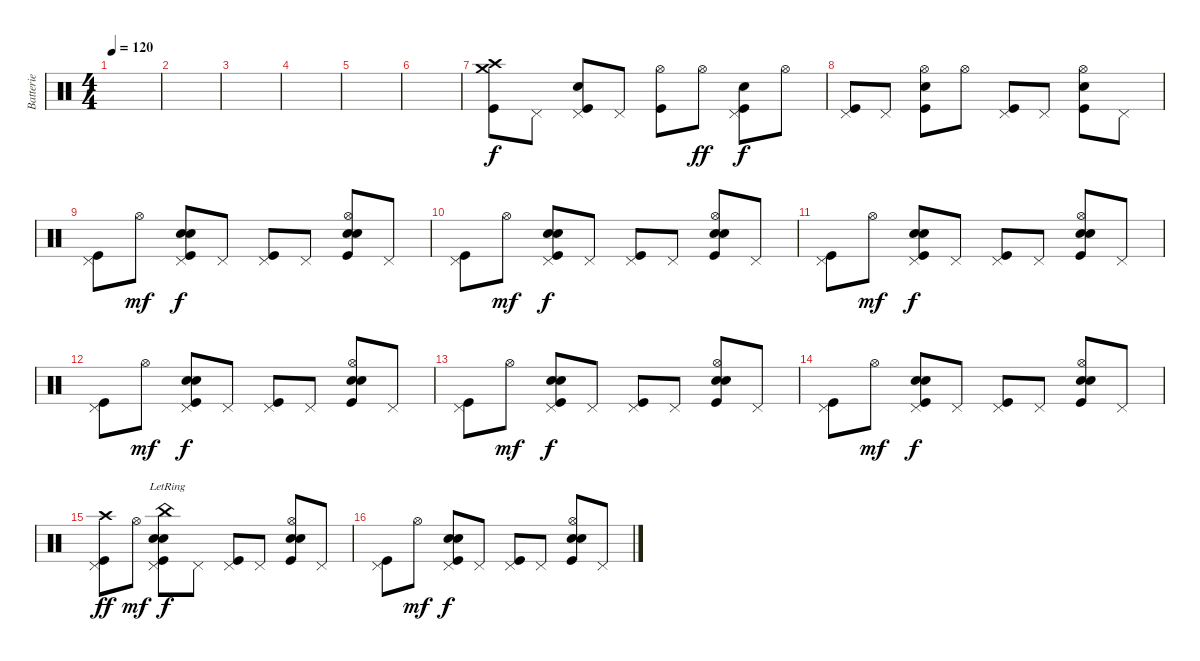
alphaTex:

\track ("Batterie" "Batterie") {instrument percussion}
\staff {score}
\articulation defaults
\ts (4 4)
\tempo 120
\clef neutral
\ks c
|
|
|
|
|
|
("Crash medium (hit)" "Kick (hit)" "Crash high (hit)").8 "Pedal Hi-Hat (hit)".8 ("Pedal Hi-Hat (hit)" "Kick (hit)" "Electric Snare (hit)").8 "Pedal Hi-Hat (hit)".8 ("Hi-Hat (open)" "Kick (hit)").8 "Hi-Hat (open)".8{dy ff} ("Pedal Hi-Hat (hit)" "Kick (hit)" "Electric Snare (hit)").8{dy f} "Hi-Hat (open)".8 |
("Pedal Hi-Hat (hit)" "Kick (hit)").8 "Pedal Hi-Hat (hit)".8 ("Hi-Hat (open)" "Kick (hit)" "Electric Snare (hit)").8 "Hi-Hat (open)".8 ("Pedal Hi-Hat (hit)" "Kick (hit)").8 "Pedal Hi-Hat (hit)".8 ("Hi-Hat (open)" "Kick (hit)" "Electric Snare (hit)").8 "Pedal Hi-Hat (hit)".8 |
("Pedal Hi-Hat (hit)" "Kick (hit)").8 "Hi-Hat (open)".8{dy mf} ("Pedal Hi-Hat (hit)" "Kick (hit)" "Electric Snare (hit)" "Snare (hit) 2").8{dy f} "Pedal Hi-Hat (hit)".8 ("Pedal Hi-Hat (hit)" "Kick (hit)").8 "Pedal Hi-Hat (hit)".8 ("Hi-Hat (open)" "Kick (hit)" "Electric Snare (hit)" "Snare (hit) 2").8 "Pedal Hi-Hat (hit)".8 |
("Pedal Hi-Hat (hit)" "Kick (hit)").8 "Hi-Hat (open)".8{dy mf} ("Pedal Hi-Hat (hit)" "Kick (hit)" "Electric Snare (hit)" "Snare (hit) 2").8{dy f} "Pedal Hi-Hat (hit)".8 ("Pedal Hi-Hat (hit)" "Kick (hit)").8 "Pedal Hi-Hat (hit)".8 ("Hi-Hat (open)" "Kick (hit)" "Electric Snare (hit)" "Snare (hit) 2").8 "Pedal Hi-Hat (hit)".8 |
("Pedal Hi-Hat (hit)" "Kick (hit)").8 "Hi-Hat (open)".8{dy mf} ("Pedal Hi-Hat (hit)" "Kick (hit)" "Electric Snare (hit)" "Snare (hit) 2").8{dy f} "Pedal Hi-Hat (hit)".8 ("Pedal Hi-Hat (hit)" "Kick (hit)").8 "Pedal Hi-Hat (hit)".8 ("Hi-Hat (open)" "Kick (hit)" "Electric Snare (hit)" "Snare (hit) 2").8 "Pedal Hi-Hat (hit)".8 |
("Pedal Hi-Hat (hit)" "Kick (hit)").8 "Hi-Hat (open)".8{dy mf} ("Pedal Hi-Hat (hit)" "Kick (hit)" "Electric Snare (hit)" "Snare (hit) 2").8{dy f} "Pedal Hi-Hat (hit)".8 ("Pedal Hi-Hat (hit)" "Kick (hit)").8 "Pedal Hi-Hat (hit)".8 ("Hi-Hat (open)" "Kick (hit)" "Electric Snare (hit)" "Snare (hit) 2").8 "Pedal Hi-Hat (hit)".8 |
("Pedal Hi-Hat (hit)" "Kick (hit)").8 "Hi-Hat (open)".8{dy mf} ("Pedal Hi-Hat (hit)" "Kick (hit)" "Electric Snare (hit)" "Snare (hit) 2").8{dy f} "Pedal Hi-Hat (hit)".8 ("Pedal Hi-Hat (hit)" "Kick (hit)").8 "Pedal Hi-Hat (hit)".8 ("Hi-Hat (open)" "Kick (hit)" "Electric Snare (hit)" "Snare (hit) 2").8 "Pedal Hi-Hat (hit)".8 |
("Pedal Hi-Hat (hit)" "Kick (hit)").8 "Hi-Hat (open)".8{dy mf} ("Pedal Hi-Hat (hit)" "Kick (hit)" "Electric Snare (hit)" "Snare (hit) 2").8{dy f} "Pedal Hi-Hat (hit)".8 ("Pedal Hi-Hat (hit)" "Kick (hit)").8 "Pedal Hi-Hat (hit)".8 ("Hi-Hat (open)" "Kick (hit)" "Electric Snare (hit)" "Snare (hit) 2").8 "Pedal Hi-Hat (hit)".8 |
("Pedal Hi-Hat (hit)" "Kick (hit)" "Crash high (hit)").8{dy ff} "Hi-Hat (open)".8{dy mf} ("Pedal Hi-Hat (hit)" "Kick (hit)" "Electric Snare (hit)" "Snare (hit) 2" "China (hit)"{lr}).8{dy f} "Pedal Hi-Hat (hit)".8 ("Pedal Hi-Hat (hit)" "Kick (hit)").8 "Pedal Hi-Hat (hit)".8 ("Hi-Hat (open)" "Kick (hit)" "Electric Snare (hit)" "Snare (hit) 2").8 "Pedal Hi-Hat (hit)".8 |
("Pedal Hi-Hat (hit)" "Kick (hit)").8 "Hi-Hat (open)".8{dy mf} ("Pedal Hi-Hat (hit)" "Kick (hit)" "Electric Snare (hit)" "Snare (hit) 2").8{dy f} "Pedal Hi-Hat (hit)".8 ("Pedal Hi-Hat (hit)" "Kick (hit)").8 "Pedal Hi-Hat (hit)".8 ("Hi-Hat (open)" "Kick (hit)" "Electric Snare (hit)" "Snare (hit) 2").8 "Pedal Hi-Hat (hit)".8
